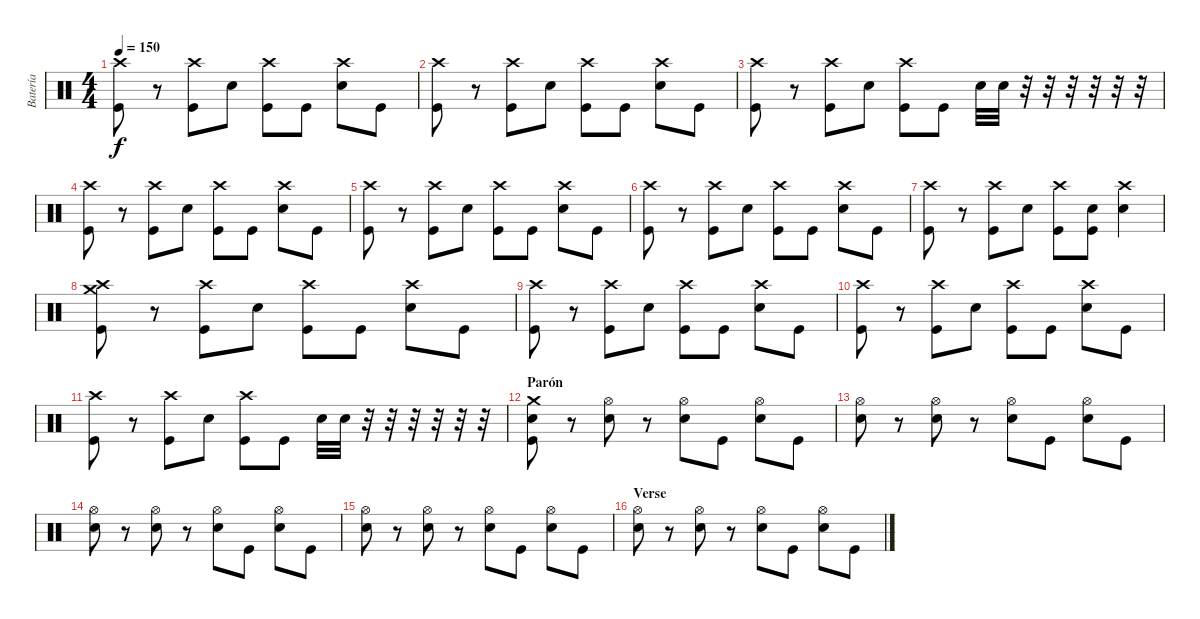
\track ("Batería" "Batería") {instrument percussion}
\staff {score}
\articulation defaults
\ts (4 4)
\tempo 150
\clef neutral
\ks c
("Crash high (hit)" "Kick (hit)").8{dy f} r.8 ("Crash high (hit)" "Kick (hit)").8 "Snare (hit) 2".8 ("Crash high (hit)" "Kick (hit)").8 "Kick (hit)".8 ("Crash high (hit)" "Snare (hit) 2").8 "Kick (hit)".8 |
("Crash high (hit)" "Kick (hit)").8 r.8 ("Crash high (hit)" "Kick (hit)").8 "Snare (hit) 2".8 ("Crash high (hit)" "Kick (hit)").8 "Kick (hit)".8 ("Crash high (hit)" "Snare (hit) 2").8 "Kick (hit)".8 |
("Crash high (hit)" "Kick (hit)").8 r.8 ("Crash high (hit)" "Kick (hit)").8 "Snare (hit) 2".8 ("Crash high (hit)" "Kick (hit)").8 "Kick (hit)".8 "Snare (hit) 2".32 "Snare (hit) 2".32 r.32 r.32 r.32 r.32 r.32 r.32 |
("Crash high (hit)" "Kick (hit)").8 r.8 ("Crash high (hit)" "Kick (hit)").8 "Snare (hit) 2".8 ("Crash high (hit)" "Kick (hit)").8 "Kick (hit)".8 ("Crash high (hit)" "Snare (hit) 2").8 "Kick (hit)".8 |
("Crash high (hit)" "Kick (hit)").8 r.8 ("Crash high (hit)" "Kick (hit)").8 "Snare (hit) 2".8 ("Crash high (hit)" "Kick (hit)").8 "Kick (hit)".8 ("Crash high (hit)" "Snare (hit) 2").8 "Kick (hit)".8 |
("Crash high (hit)" "Kick (hit)").8 r.8 ("Crash high (hit)" "Kick (hit)").8 "Snare (hit) 2".8 ("Crash high (hit)" "Kick (hit)").8 "Kick (hit)".8 ("Crash high (hit)" "Snare (hit) 2").8 "Kick (hit)".8 |
("Crash high (hit)" "Kick (hit)").8 r.8 ("Crash high (hit)" "Kick (hit)").8 "Snare (hit) 2".8 ("Crash high (hit)" "Kick (hit)").8 ("Snare (hit) 2" "Kick (hit)").8 ("Crash high (hit)" "Snare (hit) 2").4 |
("Crash high (hit)" "Crash medium (hit)" "Kick (hit)").8 r.8 ("Crash high (hit)" "Kick (hit)").8 "Snare (hit) 2".8 ("Crash high (hit)" "Kick (hit)").8 "Kick (hit)".8 ("Crash high (hit)" "Snare (hit) 2").8 "Kick (hit)".8 |
("Crash high (hit)" "Kick (hit)").8 r.8 ("Crash high (hit)" "Kick (hit)").8 "Snare (hit) 2".8 ("Crash high (hit)" "Kick (hit)").8 "Kick (hit)".8 ("Crash high (hit)" "Snare (hit) 2").8 "Kick (hit)".8 |
("Crash high (hit)" "Kick (hit)").8 r.8 ("Crash high (hit)" "Kick (hit)").8 "Snare (hit) 2".8 ("Crash high (hit)" "Kick (hit)").8 "Kick (hit)".8 ("Crash high (hit)" "Snare (hit) 2").8 "Kick (hit)".8 |
("Crash high (hit)" "Kick (hit)").8 r.8 ("Crash high (hit)" "Kick (hit)").8 "Snare (hit) 2".8 ("Crash high (hit)" "Kick (hit)").8 "Kick (hit)".8 "Snare (hit) 2".32 "Snare (hit) 2".32 r.32 r.32 r.32 r.32 r.32 r.32 |
\section ("" "Parón")
("Crash medium (hit)" "Snare (hit) 2" "Kick (hit)").8 r.8 ("Hi-Hat (open)" "Snare (hit) 2").8 r.8 ("Hi-Hat (open)" "Snare (hit) 2").8 "Kick (hit)".8 ("Hi-Hat (open)" "Snare (hit) 2").8 "Kick (hit)".8 |
("Hi-Hat (open)" "Snare (hit) 2").8 r.8 ("Hi-Hat (open)" "Snare (hit) 2").8 r.8 ("Hi-Hat (open)" "Snare (hit) 2").8 "Kick (hit)".8 ("Hi-Hat (open)" "Snare (hit) 2").8 "Kick (hit)".8 |
("Hi-Hat (open)" "Snare (hit) 2").8 r.8 ("Hi-Hat (open)" "Snare (hit) 2").8 r.8 ("Hi-Hat (open)" "Snare (hit) 2").8 "Kick (hit)".8 ("Hi-Hat (open)" "Snare (hit) 2").8 "Kick (hit)".8 |
("Hi-Hat (open)" "Snare (hit) 2").8 r.8 ("Hi-Hat (open)" "Snare (hit) 2").8 r.8 ("Hi-Hat (open)" "Snare (hit) 2").8 "Kick (hit)".8 ("Hi-Hat (open)" "Snare (hit) 2").8 "Kick (hit)".8 |
\section ("" "Verse")
("Hi-Hat (open)" "Snare (hit) 2").8 r.8 ("Hi-Hat (open)" "Snare (hit) 2").8 r.8 ("Hi-Hat (open)" "Snare (hit) 2").8 "Kick (hit)".8 ("Hi-Hat (open)" "Snare (hit) 2").8 "Kick (hit)".8
